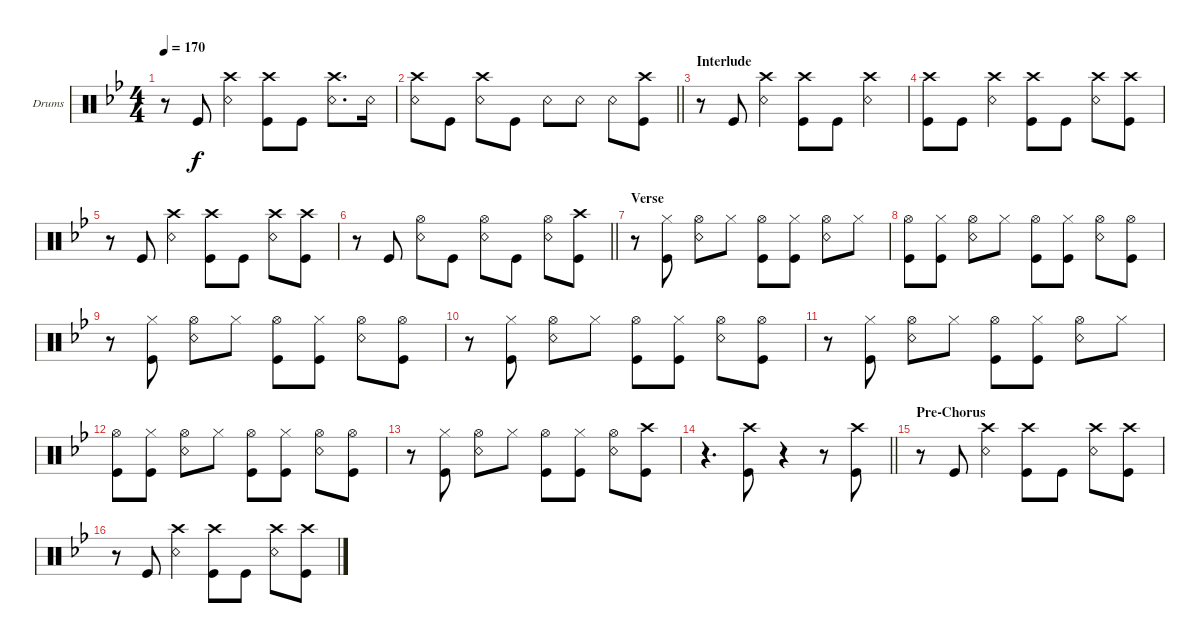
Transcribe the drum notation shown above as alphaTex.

\defaultSystemsLayout 4
\bracketExtendMode groupsimilarinstruments
\firstSystemTrackNameOrientation horizontal
\otherSystemsTrackNameOrientation horizontal
\track ("Drums" "Drums") {instrument percussion}
\staff {score}
\articulation defaults
\ts (4 4)
\tempo 170
\clef neutral
\ks bb
r.8{dy f} "Kick (hit)".8 ("Snare (rim shot)" "Crash high (hit)").4 ("Kick (hit)" "Crash high (hit)").8 "Kick (hit)".8 ("Snare (rim shot)" "Crash high (hit)").8{d} "Snare (rim shot)".16 |
\barLineRight lightlight
("Crash high (hit)" "Snare (rim shot)").8 "Kick (hit)".8 ("Crash high (hit)" "Snare (rim shot)").8 "Kick (hit)".8 "Snare (rim shot)".8 "Snare (rim shot)".8 "Snare (rim shot)".8 ("Kick (hit)" "Crash high (hit)").8 |
\section ("" "Interlude")
r.8 "Kick (hit)".8 ("Snare (rim shot)" "Crash high (hit)").4 ("Kick (hit)" "Crash high (hit)").8 "Kick (hit)".8 ("Snare (rim shot)" "Crash high (hit)").4 |
("Kick (hit)" "Crash high (hit)").8 "Kick (hit)".8 ("Snare (rim shot)" "Crash high (hit)").4 ("Kick (hit)" "Crash high (hit)").8 "Kick (hit)".8 ("Snare (rim shot)" "Crash high (hit)").8 ("Kick (hit)" "Crash high (hit)").8 |
r.8 "Kick (hit)".8 ("Snare (rim shot)" "Crash high (hit)").4 ("Kick (hit)" "Crash high (hit)").8 "Kick (hit)".8 ("Snare (rim shot)" "Crash high (hit)").8 ("Kick (hit)" "Crash high (hit)").8 |
\barLineRight lightlight
r.8 "Kick (hit)".8 ("Snare (rim shot)" "Hi-Hat (open)").8 "Kick (hit)".8 ("Snare (rim shot)" "Hi-Hat (open)").8 "Kick (hit)".8 ("Snare (rim shot)" "Hi-Hat (open)").8 ("Kick (hit)" "Crash high (hit)").8 |
\section ("" "Verse")
r.8 ("Kick (hit)" "Hi-Hat (closed)").8 ("Hi-Hat (open)" "Snare (rim shot)").8 "Hi-Hat (closed)".8 ("Kick (hit)" "Hi-Hat (open)").8 ("Kick (hit)" "Hi-Hat (closed)").8 ("Hi-Hat (open)" "Snare (rim shot)").8 "Hi-Hat (closed)".8 |
("Kick (hit)" "Hi-Hat (open)").8 ("Kick (hit)" "Hi-Hat (closed)").8 ("Hi-Hat (open)" "Snare (rim shot)").8 "Hi-Hat (closed)".8 ("Kick (hit)" "Hi-Hat (open)").8 ("Kick (hit)" "Hi-Hat (closed)").8 ("Hi-Hat (open)" "Snare (rim shot)").8 ("Kick (hit)" "Hi-Hat (open)").8 |
r.8 ("Kick (hit)" "Hi-Hat (closed)").8 ("Hi-Hat (open)" "Snare (rim shot)").8 "Hi-Hat (closed)".8 ("Kick (hit)" "Hi-Hat (open)").8 ("Kick (hit)" "Hi-Hat (closed)").8 ("Hi-Hat (open)" "Snare (rim shot)").8 ("Kick (hit)" "Hi-Hat (open)").8 |
r.8 ("Kick (hit)" "Hi-Hat (closed)").8 ("Hi-Hat (open)" "Snare (rim shot)").8 "Hi-Hat (closed)".8 ("Kick (hit)" "Hi-Hat (open)").8 ("Kick (hit)" "Hi-Hat (closed)").8 ("Hi-Hat (open)" "Snare (rim shot)").8 ("Kick (hit)" "Hi-Hat (open)").8 |
r.8 ("Kick (hit)" "Hi-Hat (closed)").8 ("Hi-Hat (open)" "Snare (rim shot)").8 "Hi-Hat (closed)".8 ("Kick (hit)" "Hi-Hat (open)").8 ("Kick (hit)" "Hi-Hat (closed)").8 ("Hi-Hat (open)" "Snare (rim shot)").8 "Hi-Hat (closed)".8 |
("Kick (hit)" "Hi-Hat (open)").8 ("Kick (hit)" "Hi-Hat (closed)").8 ("Hi-Hat (open)" "Snare (rim shot)").8 "Hi-Hat (closed)".8 ("Kick (hit)" "Hi-Hat (open)").8 ("Kick (hit)" "Hi-Hat (closed)").8 ("Hi-Hat (open)" "Snare (rim shot)").8 ("Kick (hit)" "Hi-Hat (open)").8 |
r.8 ("Kick (hit)" "Hi-Hat (closed)").8 ("Hi-Hat (open)" "Snare (rim shot)").8 "Hi-Hat (closed)".8 ("Kick (hit)" "Hi-Hat (open)").8 ("Kick (hit)" "Hi-Hat (closed)").8 ("Hi-Hat (open)" "Snare (rim shot)").8 ("Kick (hit)" "Crash high (hit)").8 |
\barLineRight lightlight
r.4{d} ("Kick (hit)" "Crash high (hit)").8 r.4 r.8 ("Kick (hit)" "Crash high (hit)").8 |
\section ("" "Pre-Chorus")
r.8 "Kick (hit)".8 ("Snare (rim shot)" "Crash high (hit)").4 ("Kick (hit)" "Crash high (hit)").8 "Kick (hit)".8 ("Snare (rim shot)" "Crash high (hit)").8 ("Kick (hit)" "Crash high (hit)").8 |
r.8 "Kick (hit)".8 ("Snare (rim shot)" "Crash high (hit)").4 ("Kick (hit)" "Crash high (hit)").8 "Kick (hit)".8 ("Snare (rim shot)" "Crash high (hit)").8 ("Kick (hit)" "Crash high (hit)").8
